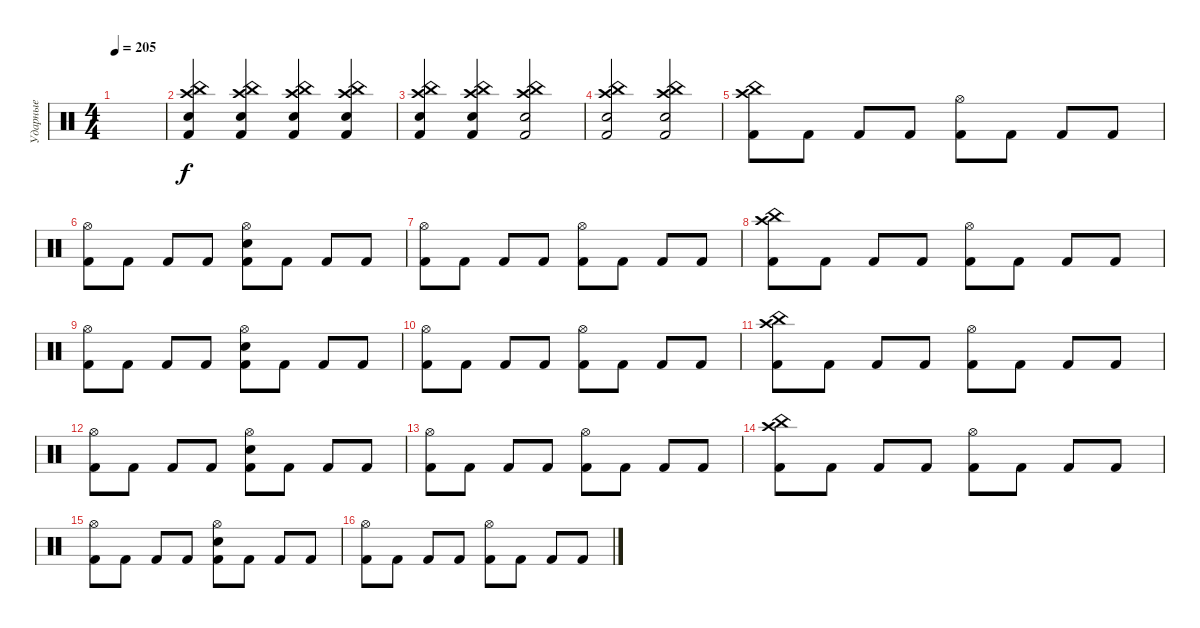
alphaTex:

\track ("Ударные" "Ударные") {instrument percussion}
\staff {score}
\articulation defaults
\ts (4 4)
\tempo 205
\clef neutral
\ks c
|
("Kick (hit) 2" "Crash high (hit)" "China (hit)" "Electric Snare (hit)").4 ("China (hit)" "Crash high (hit)" "Kick (hit) 2" "Electric Snare (hit)").4 ("Electric Snare (hit)" "Kick (hit) 2" "Crash high (hit)" "China (hit)").4 ("China (hit)" "Crash high (hit)" "Kick (hit) 2" "Electric Snare (hit)").4 |
("Electric Snare (hit)" "Kick (hit) 2" "Crash high (hit)" "China (hit)").4 ("China (hit)" "Crash high (hit)" "Kick (hit) 2" "Electric Snare (hit)").4 ("Electric Snare (hit)" "Kick (hit) 2" "Crash high (hit)" "China (hit)").2 |
("China (hit)" "Crash high (hit)" "Kick (hit) 2" "Electric Snare (hit)").2 ("Electric Snare (hit)" "Kick (hit) 2" "Crash high (hit)" "China (hit)").2 |
("Kick (hit) 2" "Crash high (hit)" "China (hit)").8 "Kick (hit) 2".8 "Kick (hit) 2".8 "Kick (hit) 2".8 ("Kick (hit) 2" "Hi-Hat (open)").8 "Kick (hit) 2".8 "Kick (hit) 2".8 "Kick (hit) 2".8 |
("Kick (hit) 2" "Hi-Hat (open)").8 "Kick (hit) 2".8 "Kick (hit) 2".8 "Kick (hit) 2".8 ("Kick (hit) 2" "Electric Snare (hit)" "Hi-Hat (open)").8 "Kick (hit) 2".8 "Kick (hit) 2".8 "Kick (hit) 2".8 |
("Kick (hit) 2" "Hi-Hat (open)").8 "Kick (hit) 2".8 "Kick (hit) 2".8 "Kick (hit) 2".8 ("Kick (hit) 2" "Hi-Hat (open)").8 "Kick (hit) 2".8 "Kick (hit) 2".8 "Kick (hit) 2".8 |
("Kick (hit) 2" "Crash high (hit)" "China (hit)").8 "Kick (hit) 2".8 "Kick (hit) 2".8 "Kick (hit) 2".8 ("Kick (hit) 2" "Hi-Hat (open)").8 "Kick (hit) 2".8 "Kick (hit) 2".8 "Kick (hit) 2".8 |
("Kick (hit) 2" "Hi-Hat (open)").8 "Kick (hit) 2".8 "Kick (hit) 2".8 "Kick (hit) 2".8 ("Kick (hit) 2" "Electric Snare (hit)" "Hi-Hat (open)").8 "Kick (hit) 2".8 "Kick (hit) 2".8 "Kick (hit) 2".8 |
("Kick (hit) 2" "Hi-Hat (open)").8 "Kick (hit) 2".8 "Kick (hit) 2".8 "Kick (hit) 2".8 ("Kick (hit) 2" "Hi-Hat (open)").8 "Kick (hit) 2".8 "Kick (hit) 2".8 "Kick (hit) 2".8 |
("Kick (hit) 2" "Crash high (hit)" "China (hit)").8 "Kick (hit) 2".8 "Kick (hit) 2".8 "Kick (hit) 2".8 ("Kick (hit) 2" "Hi-Hat (open)").8 "Kick (hit) 2".8 "Kick (hit) 2".8 "Kick (hit) 2".8 |
("Kick (hit) 2" "Hi-Hat (open)").8 "Kick (hit) 2".8 "Kick (hit) 2".8 "Kick (hit) 2".8 ("Kick (hit) 2" "Electric Snare (hit)" "Hi-Hat (open)").8 "Kick (hit) 2".8 "Kick (hit) 2".8 "Kick (hit) 2".8 |
("Kick (hit) 2" "Hi-Hat (open)").8 "Kick (hit) 2".8 "Kick (hit) 2".8 "Kick (hit) 2".8 ("Kick (hit) 2" "Hi-Hat (open)").8 "Kick (hit) 2".8 "Kick (hit) 2".8 "Kick (hit) 2".8 |
("Kick (hit) 2" "Crash high (hit)" "China (hit)").8 "Kick (hit) 2".8 "Kick (hit) 2".8 "Kick (hit) 2".8 ("Kick (hit) 2" "Hi-Hat (open)").8 "Kick (hit) 2".8 "Kick (hit) 2".8 "Kick (hit) 2".8 |
("Kick (hit) 2" "Hi-Hat (open)").8 "Kick (hit) 2".8 "Kick (hit) 2".8 "Kick (hit) 2".8 ("Kick (hit) 2" "Electric Snare (hit)" "Hi-Hat (open)").8 "Kick (hit) 2".8 "Kick (hit) 2".8 "Kick (hit) 2".8 |
("Kick (hit) 2" "Hi-Hat (open)").8 "Kick (hit) 2".8 "Kick (hit) 2".8 "Kick (hit) 2".8 ("Kick (hit) 2" "Hi-Hat (open)").8 "Kick (hit) 2".8 "Kick (hit) 2".8 "Kick (hit) 2".8
